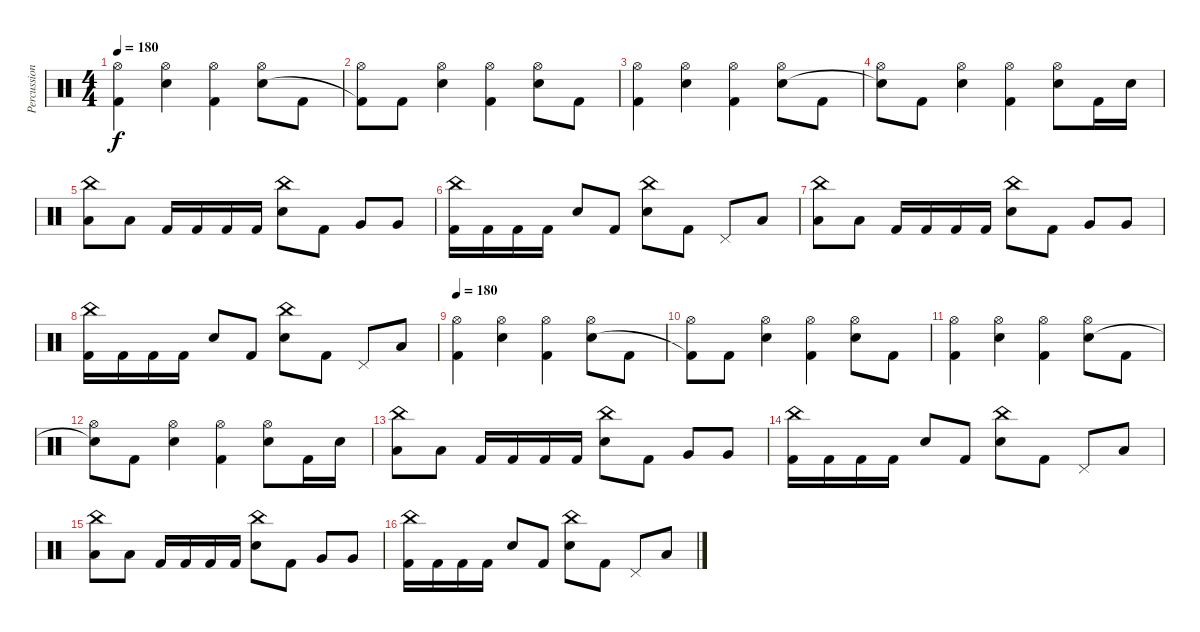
\track ("Percussions" "Percussion") {instrument percussion}
\staff {score}
\articulation defaults
\ts (4 4)
\tempo 180
\clef neutral
\ks c
("Hi-Hat (open)" "Kick (hit) 2").4{dy f} ("Hi-Hat (open)" "Electric Snare (hit)").4 ("Hi-Hat (open)" "Kick (hit) 2").4 ("Hi-Hat (open)" "Electric Snare (hit)").8 "Kick (hit) 2".8 |
("Hi-Hat (open)" "Kick (hit) 2"{t}).8 "Kick (hit) 2".8 ("Hi-Hat (open)" "Electric Snare (hit)").4 ("Hi-Hat (open)" "Kick (hit) 2").4 ("Hi-Hat (open)" "Electric Snare (hit)").8 "Kick (hit) 2".8 |
("Hi-Hat (open)" "Kick (hit) 2").4 ("Hi-Hat (open)" "Electric Snare (hit)").4 ("Hi-Hat (open)" "Kick (hit) 2").4 ("Hi-Hat (open)" "Electric Snare (hit)").8 "Kick (hit) 2".8 |
("Hi-Hat (open)" "Snare (hit)"{t}).8 "Kick (hit) 2".8 ("Hi-Hat (open)" "Electric Snare (hit)").4 ("Hi-Hat (open)" "Kick (hit) 2").4 ("Hi-Hat (open)" "Electric Snare (hit)").8 "Kick (hit) 2".16 "Electric Snare (hit)".16 |
("China (hit)" "Low Tom (hit)").8 "Low Tom (hit)".8 "Kick (hit) 2".16 "Kick (hit) 2".16 "Kick (hit) 2".16 "Kick (hit) 2".16 ("China (hit)" "Electric Snare (hit)").8 "Kick (hit) 2".8 "Very Low Tom (hit)".8 "Very Low Tom (hit)".8 |
("China (hit)" "Kick (hit) 2").16 "Kick (hit) 2".16 "Kick (hit) 2".16 "Kick (hit) 2".16 "Electric Snare (hit)".8 "Kick (hit) 2".8 ("China (hit)" "Electric Snare (hit)").8 "Kick (hit) 2".8 "Pedal Hi-Hat (hit)".8 "Low Floor Tom (hit)".8 |
("China (hit)" "Low Tom (hit)").8 "Low Tom (hit)".8 "Kick (hit) 2".16 "Kick (hit) 2".16 "Kick (hit) 2".16 "Kick (hit) 2".16 ("China (hit)" "Electric Snare (hit)").8 "Kick (hit) 2".8 "Very Low Tom (hit)".8 "Very Low Tom (hit)".8 |
("China (hit)" "Kick (hit) 2").16 "Kick (hit) 2".16 "Kick (hit) 2".16 "Kick (hit) 2".16 "Electric Snare (hit)".8 "Kick (hit) 2".8 ("China (hit)" "Electric Snare (hit)").8 "Kick (hit) 2".8 "Pedal Hi-Hat (hit)".8 "Low Floor Tom (hit)".8 |
\tempo 180
("Hi-Hat (open)" "Kick (hit) 2").4 ("Hi-Hat (open)" "Electric Snare (hit)").4 ("Hi-Hat (open)" "Kick (hit) 2").4 ("Hi-Hat (open)" "Electric Snare (hit)").8 "Kick (hit) 2".8 |
("Hi-Hat (open)" "Kick (hit) 2"{t}).8 "Kick (hit) 2".8 ("Hi-Hat (open)" "Electric Snare (hit)").4 ("Hi-Hat (open)" "Kick (hit) 2").4 ("Hi-Hat (open)" "Electric Snare (hit)").8 "Kick (hit) 2".8 |
("Hi-Hat (open)" "Kick (hit) 2").4 ("Hi-Hat (open)" "Electric Snare (hit)").4 ("Hi-Hat (open)" "Kick (hit) 2").4 ("Hi-Hat (open)" "Electric Snare (hit)").8 "Kick (hit) 2".8 |
("Hi-Hat (open)" "Snare (hit)"{t}).8 "Kick (hit) 2".8 ("Hi-Hat (open)" "Electric Snare (hit)").4 ("Hi-Hat (open)" "Kick (hit) 2").4 ("Hi-Hat (open)" "Electric Snare (hit)").8 "Kick (hit) 2".16 "Electric Snare (hit)".16 |
("China (hit)" "Low Tom (hit)").8 "Low Tom (hit)".8 "Kick (hit) 2".16 "Kick (hit) 2".16 "Kick (hit) 2".16 "Kick (hit) 2".16 ("China (hit)" "Electric Snare (hit)").8 "Kick (hit) 2".8 "Very Low Tom (hit)".8 "Very Low Tom (hit)".8 |
("China (hit)" "Kick (hit) 2").16 "Kick (hit) 2".16 "Kick (hit) 2".16 "Kick (hit) 2".16 "Electric Snare (hit)".8 "Kick (hit) 2".8 ("China (hit)" "Electric Snare (hit)").8 "Kick (hit) 2".8 "Pedal Hi-Hat (hit)".8 "Low Floor Tom (hit)".8 |
("China (hit)" "Low Tom (hit)").8 "Low Tom (hit)".8 "Kick (hit) 2".16 "Kick (hit) 2".16 "Kick (hit) 2".16 "Kick (hit) 2".16 ("China (hit)" "Electric Snare (hit)").8 "Kick (hit) 2".8 "Very Low Tom (hit)".8 "Very Low Tom (hit)".8 |
("China (hit)" "Kick (hit) 2").16 "Kick (hit) 2".16 "Kick (hit) 2".16 "Kick (hit) 2".16 "Electric Snare (hit)".8 "Kick (hit) 2".8 ("China (hit)" "Electric Snare (hit)").8 "Kick (hit) 2".8 "Pedal Hi-Hat (hit)".8 "Low Floor Tom (hit)".8
